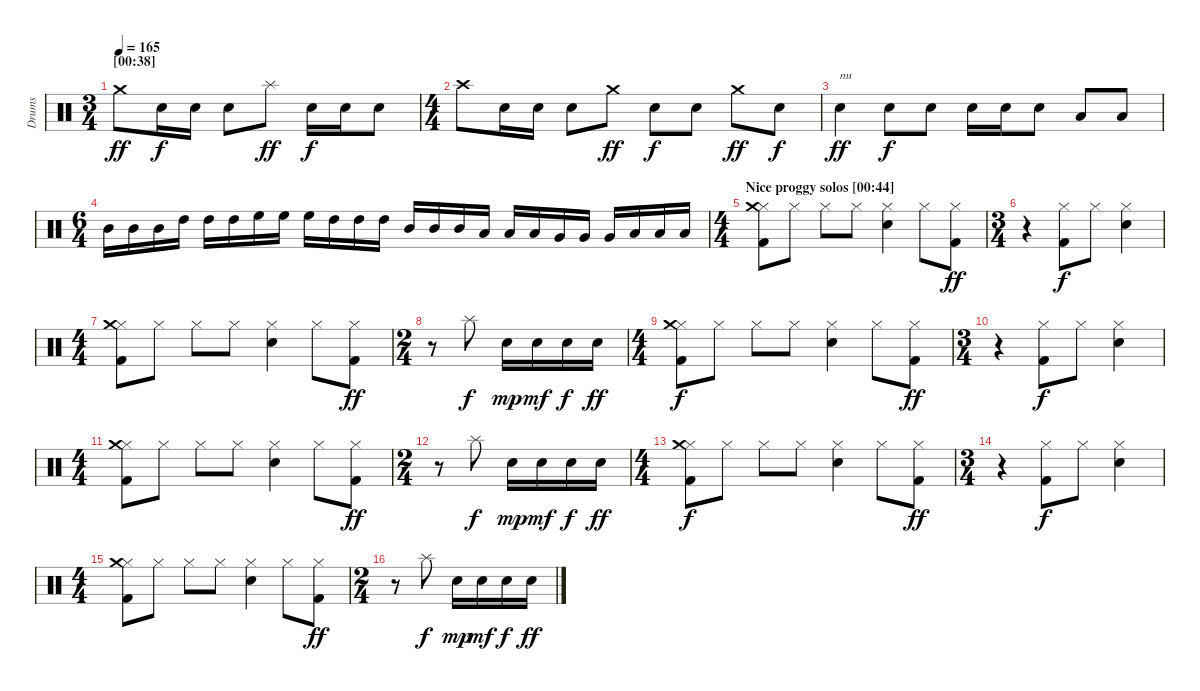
\track ("Drums" "Drums") {instrument percussion}
\staff {score}
\articulation defaults
\ts (3 4)
\section ("" "[00:38]")
\tempo 165
\clef neutral
\ks c "Crash medium (hit)".8{dy ff} "Electric Snare (hit)".16{dy f} "Electric Snare (hit)".16 "Electric Snare (hit)".8 "Splash (hit)".8{dy ff} "Electric Snare (hit)".16{dy f} "Electric Snare (hit)".16 "Electric Snare (hit)".8
|
\ts (4 4)
"Crash high (hit)".8 "Electric Snare (hit)".16 "Electric Snare (hit)".16 "Electric Snare (hit)".8 "Crash medium (hit)".8{dy ff} "Electric Snare (hit)".8{dy f} "Electric Snare (hit)".8 "Crash medium (hit)".8{dy ff} "Electric Snare (hit)".8{dy f} |
"Electric Snare (hit)".4{txt "nu" dy ff} "Electric Snare (hit)".8{dy f} "Electric Snare (hit)".8 "Electric Snare (hit)".16 "Electric Snare (hit)".16 "Electric Snare (hit)".8 "Low Tom (hit)".8 "Low Tom (hit)".8 |
\ts (6 4)
"Mid Tom (hit)".16 "Mid Tom (hit)".16 "Mid Tom (hit)".16 "High Tom (hit)".16 "High Tom (hit)".16 "High Tom (hit)".16 "High Floor Tom (hit)".16 "High Floor Tom (hit)".16 "High Floor Tom (hit)".16 "High Tom (hit)".16 "High Tom (hit)".16 "High Tom (hit)".16 "Mid Tom (hit)".16 "Mid Tom (hit)".16 "Mid Tom (hit)".16 "Low Tom (hit)".16 "Low Tom (hit)".16 "Low Tom (hit)".16 "Very Low Tom (hit)".16 "Very Low Tom (hit)".16 "Very Low Tom (hit)".16 "Low Floor Tom (hit)".16 "Low Floor Tom (hit)".16 "Low Floor Tom (hit)".16 |
\ts (4 4)
\section ("" "Nice proggy solos [00:44]")
("Hi-Hat (closed)" "Crash medium (hit)" "Kick (hit) 2").8 "Hi-Hat (closed)".8 "Hi-Hat (closed)".8 "Hi-Hat (closed)".8 ("Hi-Hat (closed)" "Electric Snare (hit)").4 "Hi-Hat (closed)".8 ("Hi-Hat (closed)" "Kick (hit) 2").8{dy ff} |
\ts (3 4)
r.4 ("Hi-Hat (closed)" "Kick (hit) 2").8{dy f} "Hi-Hat (closed)".8 ("Hi-Hat (closed)" "Electric Snare (hit)").4 |
\ts (4 4)
("Hi-Hat (closed)" "Crash medium (hit)" "Kick (hit) 2").8 "Hi-Hat (closed)".8 "Hi-Hat (closed)".8 "Hi-Hat (closed)".8 ("Hi-Hat (closed)" "Electric Snare (hit)").4 "Hi-Hat (closed)".8 ("Hi-Hat (closed)" "Kick (hit) 2").8{dy ff} |
\ts (2 4)
r.8 "Splash (hit)".8{dy f} "Electric Snare (hit)".16{dy mp} "Electric Snare (hit)".16{dy mf} "Electric Snare (hit)".16{dy f} "Electric Snare (hit)".16{dy ff} |
\ts (4 4)
("Hi-Hat (closed)" "Crash medium (hit)" "Kick (hit) 2").8{dy f} "Hi-Hat (closed)".8 "Hi-Hat (closed)".8 "Hi-Hat (closed)".8 ("Hi-Hat (closed)" "Electric Snare (hit)").4 "Hi-Hat (closed)".8 ("Hi-Hat (closed)" "Kick (hit) 2").8{dy ff} |
\ts (3 4)
r.4 ("Hi-Hat (closed)" "Kick (hit) 2").8{dy f} "Hi-Hat (closed)".8 ("Hi-Hat (closed)" "Electric Snare (hit)").4 |
\ts (4 4)
("Hi-Hat (closed)" "Crash medium (hit)" "Kick (hit) 2").8 "Hi-Hat (closed)".8 "Hi-Hat (closed)".8 "Hi-Hat (closed)".8 ("Hi-Hat (closed)" "Electric Snare (hit)").4 "Hi-Hat (closed)".8 ("Hi-Hat (closed)" "Kick (hit) 2").8{dy ff} |
\ts (2 4)
r.8 "Splash (hit)".8{dy f} "Electric Snare (hit)".16{dy mp} "Electric Snare (hit)".16{dy mf} "Electric Snare (hit)".16{dy f} "Electric Snare (hit)".16{dy ff} |
\ts (4 4)
\section ("" "")
("Hi-Hat (closed)" "Crash medium (hit)" "Kick (hit) 2").8{dy f} "Hi-Hat (closed)".8 "Hi-Hat (closed)".8 "Hi-Hat (closed)".8 ("Hi-Hat (closed)" "Electric Snare (hit)").4 "Hi-Hat (closed)".8 ("Hi-Hat (closed)" "Kick (hit) 2").8{dy ff} |
\ts (3 4)
r.4 ("Hi-Hat (closed)" "Kick (hit) 2").8{dy f} "Hi-Hat (closed)".8 ("Hi-Hat (closed)" "Electric Snare (hit)").4 |
\ts (4 4)
("Hi-Hat (closed)" "Crash medium (hit)" "Kick (hit) 2").8 "Hi-Hat (closed)".8 "Hi-Hat (closed)".8 "Hi-Hat (closed)".8 ("Hi-Hat (closed)" "Electric Snare (hit)").4 "Hi-Hat (closed)".8 ("Hi-Hat (closed)" "Kick (hit) 2").8{dy ff} |
\ts (2 4)
r.8 "Splash (hit)".8{dy f} "Electric Snare (hit)".16{dy mp} "Electric Snare (hit)".16{dy mf} "Electric Snare (hit)".16{dy f} "Electric Snare (hit)".16{dy ff}
